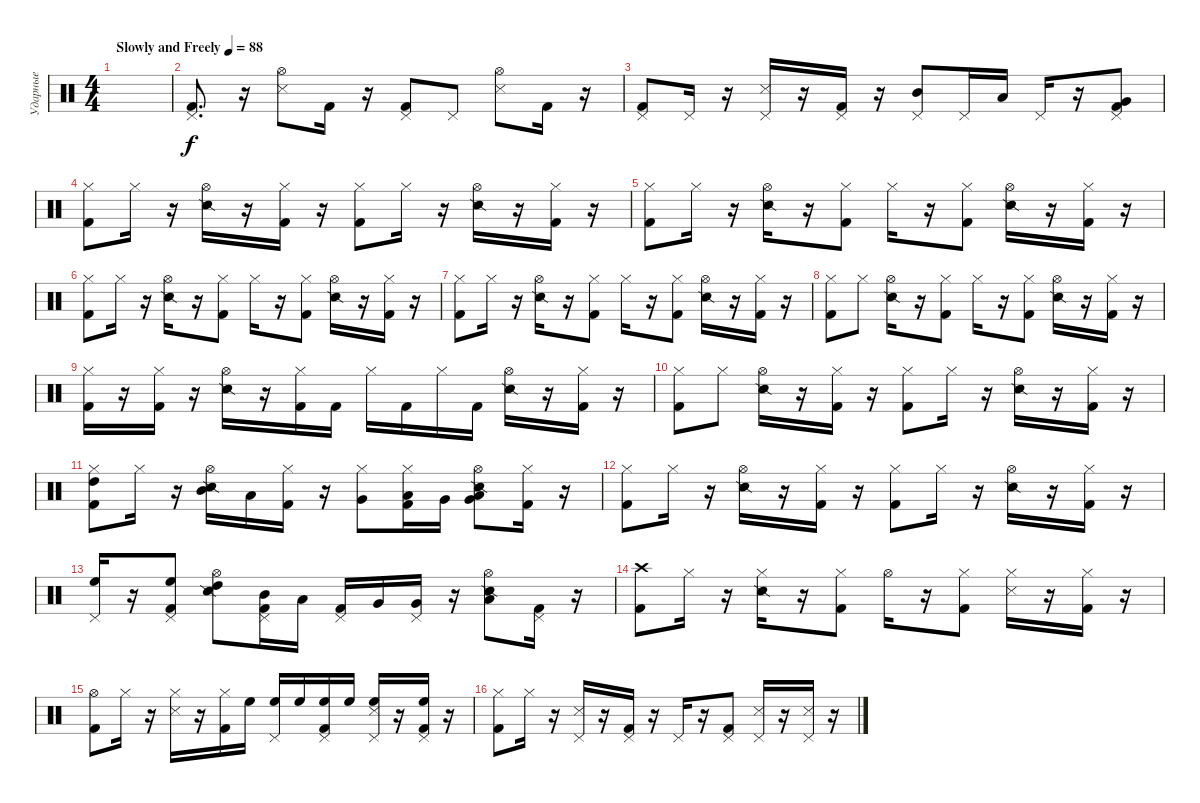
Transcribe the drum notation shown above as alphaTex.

\track ("Ударные" "Ударные") {instrument percussion}
\staff {score}
\articulation defaults
\ts (4 4)
\tempo (88 "Slowly and Freely")
\clef neutral
\ks c
|
("Kick (hit) 2" "Pedal Hi-Hat (hit)").8{d} r.16 ("Hi-Hat (open)" "Snare (side stick) 3").8 "Kick (hit) 2".16 r.16 ("Pedal Hi-Hat (hit)" "Kick (hit) 2").8 "Pedal Hi-Hat (hit)".8 ("Hi-Hat (open)" "Snare (side stick) 3").8 "Kick (hit) 2".16 r.16 |
("Pedal Hi-Hat (hit)" "Kick (hit) 2").8 "Pedal Hi-Hat (hit)".16 r.16 ("Pedal Hi-Hat (hit)" "Snare (side stick) 3").16 r.16 ("Pedal Hi-Hat (hit)" "Kick (hit) 2").16 r.16 ("Pedal Hi-Hat (hit)" "Mid Tom (hit)").8 "Pedal Hi-Hat (hit)".16 "Low Tom (hit)".16 "Pedal Hi-Hat (hit)".16 r.16 ("Kick (hit) 2" "Pedal Hi-Hat (hit)" "Very Low Tom (hit)").8 |
("Hi-Hat (closed)" "Kick (hit) 2").8 "Hi-Hat (closed)".16 r.16 ("Hi-Hat (open)" "Snare (side stick) 2").16 r.16 ("Kick (hit) 2" "Hi-Hat (closed)").16 r.16 ("Hi-Hat (closed)" "Kick (hit) 2").8 "Hi-Hat (closed)".16 r.16 ("Hi-Hat (open)" "Snare (side stick) 2").16 r.16 ("Hi-Hat (closed)" "Kick (hit) 2").16 r.16 |
("Hi-Hat (closed)" "Kick (hit) 2").8 "Hi-Hat (closed)".16 r.16 ("Hi-Hat (open)" "Snare (side stick) 2").16 r.16 ("Hi-Hat (closed)" "Kick (hit) 2").8 "Hi-Hat (closed)".16 r.16 ("Kick (hit) 2" "Hi-Hat (closed)").8 ("Hi-Hat (open)" "Snare (side stick) 2").16 r.16 ("Kick (hit) 2" "Hi-Hat (closed)").16 r.16 |
("Kick (hit) 2" "Hi-Hat (closed)").8 "Hi-Hat (closed)".16 r.16 ("Hi-Hat (open)" "Snare (side stick) 2").16 r.16 ("Hi-Hat (closed)" "Kick (hit) 2").8 "Hi-Hat (closed)".16 r.16 ("Kick (hit) 2" "Hi-Hat (closed)").8 ("Hi-Hat (open)" "Snare (side stick) 2").16 r.16 ("Hi-Hat (closed)" "Kick (hit) 2").16 r.16 |
("Hi-Hat (closed)" "Kick (hit) 2").8 "Hi-Hat (closed)".16 r.16 ("Hi-Hat (open)" "Snare (side stick) 2").16 r.16 ("Hi-Hat (closed)" "Kick (hit) 2").8 "Hi-Hat (closed)".16 r.16 ("Kick (hit) 2" "Hi-Hat (closed)").8 ("Hi-Hat (open)" "Snare (side stick) 2").16 r.16 ("Hi-Hat (closed)" "Kick (hit) 2").16 r.16 |
("Hi-Hat (closed)" "Kick (hit) 2").8 "Hi-Hat (closed)".8 ("Hi-Hat (open)" "Snare (side stick) 2").16 r.16 ("Kick (hit) 2" "Hi-Hat (closed)").8 "Hi-Hat (closed)".16 r.16 ("Hi-Hat (closed)" "Kick (hit) 2").8 ("Hi-Hat (open)" "Snare (side stick) 2").16 r.16 ("Hi-Hat (closed)" "Kick (hit) 2").16 r.16 |
("Hi-Hat (closed)" "Kick (hit) 2").16 r.16 ("Hi-Hat (closed)" "Kick (hit) 2").16 r.16 ("Hi-Hat (open)" "Snare (side stick) 2").16 r.16 ("Hi-Hat (closed)" "Kick (hit) 2").16 "Kick (hit) 2".16 "Hi-Hat (closed)".16 "Kick (hit) 2".16 "Hi-Hat (closed)".16 "Kick (hit) 2".16 ("Hi-Hat (open)" "Snare (side stick) 2").16 r.16 ("Hi-Hat (closed)" "Kick (hit) 2").16 r.16 |
("Hi-Hat (closed)" "Kick (hit) 2").8 "Hi-Hat (closed)".8 ("Hi-Hat (open)" "Snare (side stick) 2").16 r.16 ("Kick (hit) 2" "Hi-Hat (closed)").16 r.16 ("Kick (hit) 2" "Hi-Hat (closed)").8 "Hi-Hat (closed)".16 r.16 ("Hi-Hat (open)" "Snare (side stick) 2").16 r.16 ("Hi-Hat (closed)" "Kick (hit) 2").16 r.16 |
("Hi-Hat (closed)" "High Tom (hit)" "Kick (hit) 2").8 "Hi-Hat (closed)".16 r.16 ("Hi-Hat (open)" "Mid Tom (hit)" "Snare (side stick) 2").16 "Low Tom (hit)".16 ("Hi-Hat (closed)" "Kick (hit) 2").16 r.16 ("Hi-Hat (closed)" "Very Low Tom (hit)").8 ("Hi-Hat (closed)" "Low Tom (hit)" "Kick (hit) 2").16 "Very Low Tom (hit)".16 ("Low Floor Tom (hit)" "Hi-Hat (open)" "Very Low Tom (hit)" "Snare (side stick) 2").8 ("Hi-Hat (closed)" "Kick (hit) 2").16 r.16 |
("Hi-Hat (closed)" "Kick (hit) 2").8 "Hi-Hat (closed)".16 r.16 ("Hi-Hat (open)" "Snare (side stick) 2").16 r.16 ("Kick (hit) 2" "Hi-Hat (closed)").16 r.16 ("Kick (hit) 2" "Hi-Hat (closed)").8 "Hi-Hat (closed)".16 r.16 ("Hi-Hat (open)" "Snare (side stick) 2").16 r.16 ("Hi-Hat (closed)" "Kick (hit) 2").16 r.16 |
("High Floor Tom (hit)" "Pedal Hi-Hat (hit)").16 r.16 ("Kick (hit) 2" "Pedal Hi-Hat (hit)" "High Floor Tom (hit)").8 ("High Tom (hit)" "Hi-Hat (open)" "Snare (side stick) 2").8 ("Pedal Hi-Hat (hit)" "Kick (hit) 2" "Mid Tom (hit)").16 "Low Tom (hit)".16 ("Kick (hit) 2" "Pedal Hi-Hat (hit)").16 "Very Low Tom (hit)".16 ("Very Low Tom (hit)" "Pedal Hi-Hat (hit)").16 r.16 ("Hi-Hat (open)" "Low Floor Tom (hit)" "Snare (side stick) 2").8 ("Pedal Hi-Hat (hit)" "Kick (hit) 2").16 r.16 |
("Kick (hit) 2" "Crash high (hit)").8 "Hi-Hat (closed)".16 r.16 ("Hi-Hat (closed)" "Snare (side stick) 2").16 r.16 ("Hi-Hat (closed)" "Kick (hit) 2").8 "Hi-Hat (open)".16 r.16 ("Kick (hit) 2" "Hi-Hat (closed)").8 ("Hi-Hat (closed)" "Snare (side stick) 3").16 r.16 ("Kick (hit) 2" "Hi-Hat (closed)").16 r.16 |
("Kick (hit) 2" "Hi-Hat (open)").8 "Hi-Hat (closed)".16 r.16 ("Hi-Hat (closed)" "Snare (side stick) 3").16 r.16 ("Kick (hit) 2" "Hi-Hat (closed)").16 "High Floor Tom (hit)".16 ("High Floor Tom (hit)" "Pedal Hi-Hat (hit)").16 "High Floor Tom (hit)".16 ("Kick (hit) 2" "Pedal Hi-Hat (hit)" "High Floor Tom (hit)").16 "High Floor Tom (hit)".16 ("Pedal Hi-Hat (hit)" "High Floor Tom (hit)" "Snare (side stick) 3").16 r.16 ("Kick (hit) 2" "High Floor Tom (hit)" "Pedal Hi-Hat (hit)").16 r.16 |
("Hi-Hat (closed)" "Kick (hit) 2").8 "Hi-Hat (closed)".16 r.16 ("Pedal Hi-Hat (hit)" "Snare (side stick) 3").16 r.16 ("Kick (hit) 2" "Pedal Hi-Hat (hit)").16 r.16 "Pedal Hi-Hat (hit)".16 r.16 ("Pedal Hi-Hat (hit)" "Kick (hit) 2").8 ("Pedal Hi-Hat (hit)" "Snare (side stick) 3").16 r.16 ("Pedal Hi-Hat (hit)" "Snare (side stick) 3").16 r.16
